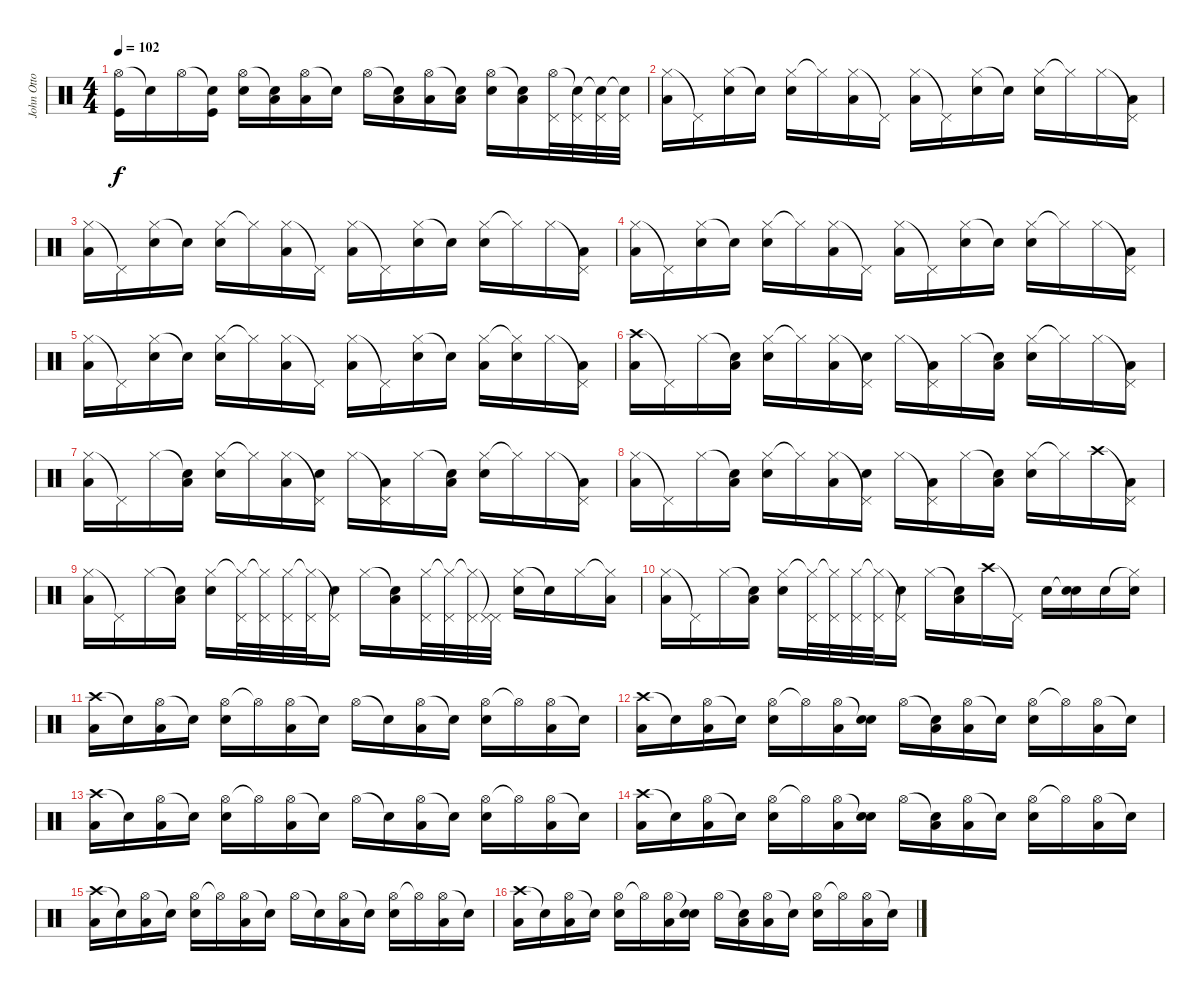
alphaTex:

\track ("John Otto (1st Drums)" "John Otto ") {instrument percussion}
\staff {score}
\articulation defaults
\ts (4 4)
\tempo 102
\clef neutral
\ks c
("Hi-Hat (open)" "Kick (hit)").16{dy f} "Snare (hit)"{t}.16 "Hi-Hat (open)".16 ("Snare (hit)"{t} "Kick (hit)").16 ("Hi-Hat (open)" "Snare (hit) 2").16 ("Snare (hit)"{t} "Low Tom (hit)").16 ("Hi-Hat (open)" "Low Tom (hit)").16 "Snare (hit)"{t}.16 "Hi-Hat (open)".16 ("Snare (hit)"{t} "Low Tom (hit)").16 ("Hi-Hat (open)" "Low Tom (hit)").16 ("Snare (hit)"{t} "Low Tom (hit)").16 ("Hi-Hat (open)" "Snare (hit) 2").16 ("Snare (hit)"{t} "Low Tom (hit)").16 ("Hi-Hat (open)" "Pedal Hi-Hat (hit)").32 ("Snare (hit)"{t} "Pedal Hi-Hat (hit)").32 ("Snare (hit)"{t} "Pedal Hi-Hat (hit)").32 ("Snare (hit)"{t} "Pedal Hi-Hat (hit)").32 |
("Hi-Hat (closed)" "Low Tom (hit)").16 "Pedal Hi-Hat (hit)"{t}.16 ("Hi-Hat (closed)" "Snare (hit) 2").16 "Snare (hit)"{t}.16 ("Hi-Hat (closed)" "Snare (hit) 2").16 "Hi-Hat (closed)"{t}.16 ("Hi-Hat (closed)" "Low Tom (hit)").16 "Pedal Hi-Hat (hit)"{t}.16 ("Hi-Hat (closed)" "Low Tom (hit)").16 "Pedal Hi-Hat (hit)"{t}.16 ("Hi-Hat (closed)" "Snare (hit) 2").16 "Snare (hit)"{t}.16 ("Hi-Hat (closed)" "Snare (hit) 2").16 "Hi-Hat (closed)"{t}.16 "Hi-Hat (closed)".16 ("Pedal Hi-Hat (hit)"{t} "Low Tom (hit)").16 |
("Hi-Hat (closed)" "Low Tom (hit)").16 "Pedal Hi-Hat (hit)"{t}.16 ("Hi-Hat (closed)" "Snare (hit) 2").16 "Snare (hit)"{t}.16 ("Hi-Hat (closed)" "Snare (hit) 2").16 "Hi-Hat (closed)"{t}.16 ("Hi-Hat (closed)" "Low Tom (hit)").16 "Pedal Hi-Hat (hit)"{t}.16 ("Hi-Hat (closed)" "Low Tom (hit)").16 "Pedal Hi-Hat (hit)"{t}.16 ("Hi-Hat (closed)" "Snare (hit) 2").16 "Snare (hit)"{t}.16 ("Hi-Hat (closed)" "Snare (hit) 2").16 "Hi-Hat (closed)"{t}.16 "Hi-Hat (closed)".16 ("Pedal Hi-Hat (hit)"{t} "Low Tom (hit)").16 |
("Hi-Hat (closed)" "Low Tom (hit)").16 "Pedal Hi-Hat (hit)"{t}.16 ("Hi-Hat (closed)" "Snare (hit) 2").16 "Snare (hit)"{t}.16 ("Hi-Hat (closed)" "Snare (hit) 2").16 "Hi-Hat (closed)"{t}.16 ("Hi-Hat (closed)" "Low Tom (hit)").16 "Pedal Hi-Hat (hit)"{t}.16 ("Hi-Hat (closed)" "Low Tom (hit)").16 "Pedal Hi-Hat (hit)"{t}.16 ("Hi-Hat (closed)" "Snare (hit) 2").16 "Snare (hit)"{t}.16 ("Hi-Hat (closed)" "Snare (hit) 2").16 "Hi-Hat (closed)"{t}.16 "Hi-Hat (closed)".16 ("Pedal Hi-Hat (hit)"{t} "Low Tom (hit)").16 |
("Hi-Hat (closed)" "Low Tom (hit)").16 "Pedal Hi-Hat (hit)"{t}.16 ("Hi-Hat (closed)" "Snare (hit) 2").16 "Snare (hit)"{t}.16 ("Hi-Hat (closed)" "Snare (hit) 2").16 "Hi-Hat (closed)"{t}.16 ("Hi-Hat (closed)" "Low Tom (hit)").16 "Pedal Hi-Hat (hit)"{t}.16 ("Hi-Hat (closed)" "Low Tom (hit)").16 "Pedal Hi-Hat (hit)"{t}.16 ("Hi-Hat (closed)" "Snare (hit) 2").16 "Snare (hit)"{t}.16 ("Hi-Hat (closed)" "Low Tom (hit)").16 ("Hi-Hat (closed)"{t} "Snare (hit) 2").16 "Hi-Hat (closed)".16 ("Pedal Hi-Hat (hit)"{t} "Low Tom (hit)").16 |
("Crash high (hit)" "Low Tom (hit)").16 "Pedal Hi-Hat (hit)"{t}.16 "Hi-Hat (closed)".16 ("Snare (hit)"{t} "Low Tom (hit)").16 ("Hi-Hat (closed)" "Snare (hit) 2").16 "Hi-Hat (closed)"{t}.16 ("Hi-Hat (closed)" "Low Tom (hit)").16 ("Pedal Hi-Hat (hit)"{t} "Snare (hit) 2").16 "Hi-Hat (closed)".16 ("Pedal Hi-Hat (hit)"{t} "Low Tom (hit)").16 "Hi-Hat (closed)".16 ("Snare (hit)"{t} "Low Tom (hit)").16 ("Hi-Hat (closed)" "Snare (hit) 2").16 "Hi-Hat (closed)"{t}.16 "Hi-Hat (closed)".16 ("Pedal Hi-Hat (hit)"{t} "Low Tom (hit)").16 |
("Hi-Hat (closed)" "Low Tom (hit)").16 "Pedal Hi-Hat (hit)"{t}.16 "Hi-Hat (closed)".16 ("Snare (hit)"{t} "Low Tom (hit)").16 ("Hi-Hat (closed)" "Snare (hit) 2").16 "Hi-Hat (closed)"{t}.16 ("Hi-Hat (closed)" "Low Tom (hit)").16 ("Pedal Hi-Hat (hit)"{t} "Snare (hit) 2").16 "Hi-Hat (closed)".16 ("Pedal Hi-Hat (hit)"{t} "Low Tom (hit)").16 "Hi-Hat (closed)".16 ("Snare (hit)"{t} "Low Tom (hit)").16 ("Hi-Hat (closed)" "Snare (hit) 2").16 "Hi-Hat (closed)"{t}.16 "Hi-Hat (closed)".16 ("Pedal Hi-Hat (hit)"{t} "Low Tom (hit)").16 |
("Hi-Hat (closed)" "Low Tom (hit)").16 "Pedal Hi-Hat (hit)"{t}.16 "Hi-Hat (closed)".16 ("Snare (hit)"{t} "Low Tom (hit)").16 ("Hi-Hat (closed)" "Snare (hit) 2").16 "Hi-Hat (closed)"{t}.16 ("Hi-Hat (closed)" "Low Tom (hit)").16 ("Pedal Hi-Hat (hit)"{t} "Snare (hit) 2").16 "Hi-Hat (closed)".16 ("Pedal Hi-Hat (hit)"{t} "Low Tom (hit)").16 "Hi-Hat (closed)".16 ("Snare (hit)"{t} "Low Tom (hit)").16 ("Hi-Hat (closed)" "Snare (hit) 2").16 "Hi-Hat (closed)"{t}.16 "Crash high (hit)".16 ("Pedal Hi-Hat (hit)"{t} "Low Tom (hit)").16 |
("Hi-Hat (closed)" "Low Tom (hit)").16 "Pedal Hi-Hat (hit)"{t}.16 "Hi-Hat (closed)".16 ("Snare (hit)"{t} "Low Tom (hit)").16 ("Hi-Hat (closed)" "Snare (hit) 2").16 ("Hi-Hat (closed)"{t} "Pedal Hi-Hat (hit)").32 ("Hi-Hat (closed)"{t} "Pedal Hi-Hat (hit)").32 ("Hi-Hat (closed)" "Pedal Hi-Hat (hit)").32 ("Hi-Hat (closed)"{t} "Pedal Hi-Hat (hit)").32 ("Pedal Hi-Hat (hit)"{t} "Snare (hit) 2").16 "Hi-Hat (closed)".16 ("Snare (hit)"{t} "Low Tom (hit)").16 ("Hi-Hat (closed)" "Pedal Hi-Hat (hit)").32 ("Hi-Hat (closed)"{t} "Pedal Hi-Hat (hit)").32 ("Hi-Hat (closed)"{t} "Pedal Hi-Hat (hit)").32 ("Pedal Hi-Hat (hit)"{t} "Pedal Hi-Hat (hit)").32 ("Hi-Hat (closed)" "Snare (hit) 2").16 "Snare (hit)"{t}.16 "Hi-Hat (closed)".16 ("Hi-Hat (closed)"{t} "Low Tom (hit)").16 |
("Hi-Hat (closed)" "Low Tom (hit)").16 "Pedal Hi-Hat (hit)"{t}.16 "Hi-Hat (closed)".16 ("Snare (hit)"{t} "Low Tom (hit)").16 ("Hi-Hat (closed)" "Snare (hit) 2").16 ("Hi-Hat (closed)"{t} "Pedal Hi-Hat (hit)").32 ("Hi-Hat (closed)"{t} "Pedal Hi-Hat (hit)").32 ("Hi-Hat (closed)" "Pedal Hi-Hat (hit)").32 ("Hi-Hat (closed)"{t} "Pedal Hi-Hat (hit)").32 ("Pedal Hi-Hat (hit)"{t} "Snare (hit) 2").16 "Hi-Hat (closed)".16 ("Snare (hit)"{t} "Low Tom (hit)").16 "Crash high (hit)".16 "Pedal Hi-Hat (hit)"{t}.16 "Snare (hit) 2".16 ("Snare (hit)"{t} "Snare (hit) 2").16 "Snare (hit) 2".16 ("Hi-Hat (closed)"{t} "Snare (hit) 2").16 |
("Crash high (hit)" "Low Tom (hit)").16 "Snare (hit)"{t}.16 ("Hi-Hat (open)" "Low Tom (hit)").16 "Snare (hit)"{t}.16 ("Hi-Hat (open)" "Snare (hit) 2").16 "Hi-Hat (open)"{t}.16 ("Hi-Hat (open)" "Low Tom (hit)").16 "Snare (hit)"{t}.16 "Hi-Hat (open)".16 "Snare (hit)"{t}.16 ("Hi-Hat (open)" "Low Tom (hit)").16 "Snare (hit)"{t}.16 ("Hi-Hat (open)" "Snare (hit) 2").16 "Hi-Hat (open)"{t}.16 ("Hi-Hat (open)" "Low Tom (hit)").16 "Snare (hit)"{t}.16 |
("Crash high (hit)" "Low Tom (hit)").16 "Snare (hit)"{t}.16 ("Hi-Hat (open)" "Low Tom (hit)").16 "Snare (hit)"{t}.16 ("Hi-Hat (open)" "Snare (hit) 2").16 "Hi-Hat (open)"{t}.16 ("Hi-Hat (open)" "Low Tom (hit)").16 ("Snare (hit)"{t} "Snare (hit) 2").16 "Hi-Hat (open)".16 ("Snare (hit)"{t} "Low Tom (hit)").16 ("Hi-Hat (open)" "Low Tom (hit)").16 "Snare (hit)"{t}.16 ("Hi-Hat (open)" "Snare (hit) 2").16 "Hi-Hat (open)"{t}.16 ("Hi-Hat (open)" "Low Tom (hit)").16 "Snare (hit)"{t}.16 |
("Crash high (hit)" "Low Tom (hit)").16 "Snare (hit)"{t}.16 ("Hi-Hat (open)" "Low Tom (hit)").16 "Snare (hit)"{t}.16 ("Hi-Hat (open)" "Snare (hit) 2").16 "Hi-Hat (open)"{t}.16 ("Hi-Hat (open)" "Low Tom (hit)").16 "Snare (hit)"{t}.16 "Hi-Hat (open)".16 "Snare (hit)"{t}.16 ("Hi-Hat (open)" "Low Tom (hit)").16 "Snare (hit)"{t}.16 ("Hi-Hat (open)" "Snare (hit) 2").16 "Hi-Hat (open)"{t}.16 ("Hi-Hat (open)" "Low Tom (hit)").16 "Snare (hit)"{t}.16 |
("Crash high (hit)" "Low Tom (hit)").16 "Snare (hit)"{t}.16 ("Hi-Hat (open)" "Low Tom (hit)").16 "Snare (hit)"{t}.16 ("Hi-Hat (open)" "Snare (hit) 2").16 "Hi-Hat (open)"{t}.16 ("Hi-Hat (open)" "Low Tom (hit)").16 ("Snare (hit)"{t} "Snare (hit) 2").16 "Hi-Hat (open)".16 ("Snare (hit)"{t} "Low Tom (hit)").16 ("Hi-Hat (open)" "Low Tom (hit)").16 "Snare (hit)"{t}.16 ("Hi-Hat (open)" "Snare (hit) 2").16 "Hi-Hat (open)"{t}.16 ("Hi-Hat (open)" "Low Tom (hit)").16 "Snare (hit)"{t}.16 |
("Crash high (hit)" "Low Tom (hit)").16 "Snare (hit)"{t}.16 ("Hi-Hat (open)" "Low Tom (hit)").16 "Snare (hit)"{t}.16 ("Hi-Hat (open)" "Snare (hit) 2").16 "Hi-Hat (open)"{t}.16 ("Hi-Hat (open)" "Low Tom (hit)").16 "Snare (hit)"{t}.16 "Hi-Hat (open)".16 "Snare (hit)"{t}.16 ("Hi-Hat (open)" "Low Tom (hit)").16 "Snare (hit)"{t}.16 ("Hi-Hat (open)" "Snare (hit) 2").16 "Hi-Hat (open)"{t}.16 ("Hi-Hat (open)" "Low Tom (hit)").16 "Snare (hit)"{t}.16 |
("Crash high (hit)" "Low Tom (hit)").16 "Snare (hit)"{t}.16 ("Hi-Hat (open)" "Low Tom (hit)").16 "Snare (hit)"{t}.16 ("Hi-Hat (open)" "Snare (hit) 2").16 "Hi-Hat (open)"{t}.16 ("Hi-Hat (open)" "Low Tom (hit)").16 ("Snare (hit)"{t} "Snare (hit) 2").16 "Hi-Hat (open)".16 ("Snare (hit)"{t} "Low Tom (hit)").16 ("Hi-Hat (open)" "Low Tom (hit)").16 "Snare (hit)"{t}.16 ("Hi-Hat (open)" "Snare (hit) 2").16 "Hi-Hat (open)"{t}.16 ("Hi-Hat (open)" "Low Tom (hit)").16 "Snare (hit)"{t}.16
